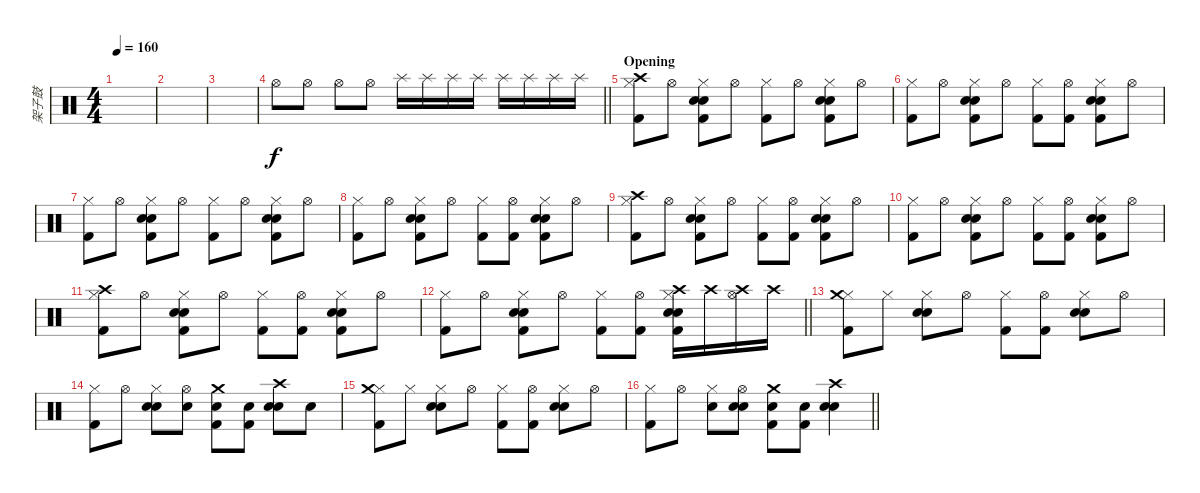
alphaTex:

\track ("架子鼓" "架子鼓") {instrument percussion}
\staff {score}
\articulation defaults
\ts (4 4)
\tempo 160
\clef neutral
\ks c
|
|
|
\barLineRight lightlight "Hi-Hat (open)".8 "Hi-Hat (open)".8 "Hi-Hat (open)".8 "Hi-Hat (open)".8 "Splash (hit)".16 "Splash (hit)".16 "Splash (hit)".16 "Splash (hit)".16 "Splash (hit)".16 "Splash (hit)".16 "Splash (hit)".16 "Splash (hit)".16
|
\section ("" "Opening")
("Hi-Hat (closed)" "Crash high (hit)" "Kick (hit) 2").8 "Hi-Hat (open)".8 ("Hi-Hat (closed)" "Electric Snare (hit)" "Hand Clap (hit)" "Kick (hit) 2").8 "Hi-Hat (open)".8 ("Hi-Hat (closed)" "Kick (hit) 2").8 "Hi-Hat (open)".8 ("Hi-Hat (closed)" "Electric Snare (hit)" "Hand Clap (hit)" "Kick (hit) 2").8 "Hi-Hat (open)".8 |
("Hi-Hat (closed)" "Kick (hit) 2").8 "Hi-Hat (open)".8 ("Hi-Hat (closed)" "Electric Snare (hit)" "Hand Clap (hit)" "Kick (hit) 2").8 "Hi-Hat (open)".8 ("Hi-Hat (closed)" "Kick (hit) 2").8 ("Hi-Hat (open)" "Kick (hit) 2").8 ("Hi-Hat (closed)" "Electric Snare (hit)" "Hand Clap (hit)" "Kick (hit) 2").8 "Hi-Hat (open)".8 |
("Hi-Hat (closed)" "Kick (hit) 2").8 "Hi-Hat (open)".8 ("Hi-Hat (closed)" "Electric Snare (hit)" "Hand Clap (hit)" "Kick (hit) 2").8 "Hi-Hat (open)".8 ("Hi-Hat (closed)" "Kick (hit) 2").8 "Hi-Hat (open)".8 ("Hi-Hat (closed)" "Electric Snare (hit)" "Hand Clap (hit)" "Kick (hit) 2").8 "Hi-Hat (open)".8 |
("Hi-Hat (closed)" "Kick (hit) 2").8 "Hi-Hat (open)".8 ("Hi-Hat (closed)" "Electric Snare (hit)" "Hand Clap (hit)" "Kick (hit) 2").8 "Hi-Hat (open)".8 ("Hi-Hat (closed)" "Kick (hit) 2").8 ("Hi-Hat (open)" "Kick (hit) 2").8 ("Hi-Hat (closed)" "Electric Snare (hit)" "Hand Clap (hit)" "Kick (hit) 2").8 "Hi-Hat (open)".8 |
("Hi-Hat (closed)" "Crash high (hit)" "Kick (hit) 2").8 "Hi-Hat (open)".8 ("Hi-Hat (closed)" "Electric Snare (hit)" "Hand Clap (hit)" "Kick (hit) 2").8 "Hi-Hat (open)".8 ("Hi-Hat (closed)" "Kick (hit) 2").8 ("Hi-Hat (open)" "Kick (hit) 2").8 ("Hi-Hat (closed)" "Electric Snare (hit)" "Hand Clap (hit)" "Kick (hit) 2").8 "Hi-Hat (open)".8 |
("Hi-Hat (closed)" "Kick (hit) 2").8 "Hi-Hat (open)".8 ("Hi-Hat (closed)" "Electric Snare (hit)" "Hand Clap (hit)" "Kick (hit) 2").8 "Hi-Hat (open)".8 ("Hi-Hat (closed)" "Kick (hit) 2").8 ("Hi-Hat (open)" "Kick (hit) 2").8 ("Hi-Hat (closed)" "Electric Snare (hit)" "Hand Clap (hit)" "Kick (hit) 2").8 "Hi-Hat (open)".8 |
("Hi-Hat (closed)" "Crash high (hit)" "Kick (hit) 2").8 "Hi-Hat (open)".8 ("Hi-Hat (closed)" "Electric Snare (hit)" "Hand Clap (hit)" "Kick (hit) 2").8 "Hi-Hat (open)".8 ("Hi-Hat (closed)" "Kick (hit) 2").8 ("Hi-Hat (open)" "Kick (hit) 2").8 ("Hi-Hat (closed)" "Electric Snare (hit)" "Hand Clap (hit)" "Kick (hit) 2").8 "Hi-Hat (open)".8 |
\barLineRight lightlight
("Hi-Hat (closed)" "Kick (hit) 2").8 "Hi-Hat (open)".8 ("Hi-Hat (closed)" "Electric Snare (hit)" "Hand Clap (hit)" "Kick (hit) 2").8 "Hi-Hat (open)".8 ("Hi-Hat (closed)" "Kick (hit) 2").8 ("Hi-Hat (open)" "Kick (hit) 2").8 ("Hi-Hat (closed)" "Electric Snare (hit)" "Hand Clap (hit)" "Crash high (hit)" "Kick (hit) 2").16 "Crash high (hit)".16 ("Hi-Hat (open)" "Crash high (hit)").16 "Crash high (hit)".16 |
("Hi-Hat (closed)" "Crash medium (hit)" "Kick (hit) 2").8 "Hi-Hat (closed)".8 ("Hi-Hat (closed)" "Electric Snare (hit)" "Hand Clap (hit)").8 "Hi-Hat (open)".8 ("Hi-Hat (closed)" "Kick (hit) 2").8 ("Hi-Hat (open)" "Kick (hit) 2").8 ("Hi-Hat (closed)" "Electric Snare (hit)" "Hand Clap (hit)").8 "Hi-Hat (open)".8 |
("Hi-Hat (closed)" "Kick (hit) 2").8 "Hi-Hat (open)".8 ("Hi-Hat (closed)" "Electric Snare (hit)" "Hand Clap (hit)").8 ("Hi-Hat (open)" "Electric Snare (hit)").8 ("Crash medium (hit)" "Electric Snare (hit)" "Kick (hit) 2").8 ("Electric Snare (hit)" "Kick (hit) 2").8 ("Crash high (hit)" "Electric Snare (hit)" "Hand Clap (hit)").8 "Electric Snare (hit)".8 |
("Hi-Hat (closed)" "Crash medium (hit)" "Kick (hit) 2").8 "Hi-Hat (closed)".8 ("Hi-Hat (closed)" "Electric Snare (hit)" "Hand Clap (hit)").8 "Hi-Hat (open)".8 ("Hi-Hat (closed)" "Kick (hit) 2").8 ("Hi-Hat (open)" "Kick (hit) 2").8 ("Hi-Hat (closed)" "Electric Snare (hit)" "Hand Clap (hit)").8 "Hi-Hat (open)".8 |
\barLineRight lightlight
("Hi-Hat (closed)" "Kick (hit) 2").8 "Hi-Hat (open)".8 ("Hi-Hat (closed)" "Electric Snare (hit)").8 ("Hi-Hat (open)" "Electric Snare (hit)" "Hand Clap (hit)").8 ("Crash medium (hit)" "Electric Snare (hit)" "Kick (hit) 2").8 ("Electric Snare (hit)" "Kick (hit) 2").8 ("Crash high (hit)" "Electric Snare (hit)" "Hand Clap (hit)").4
